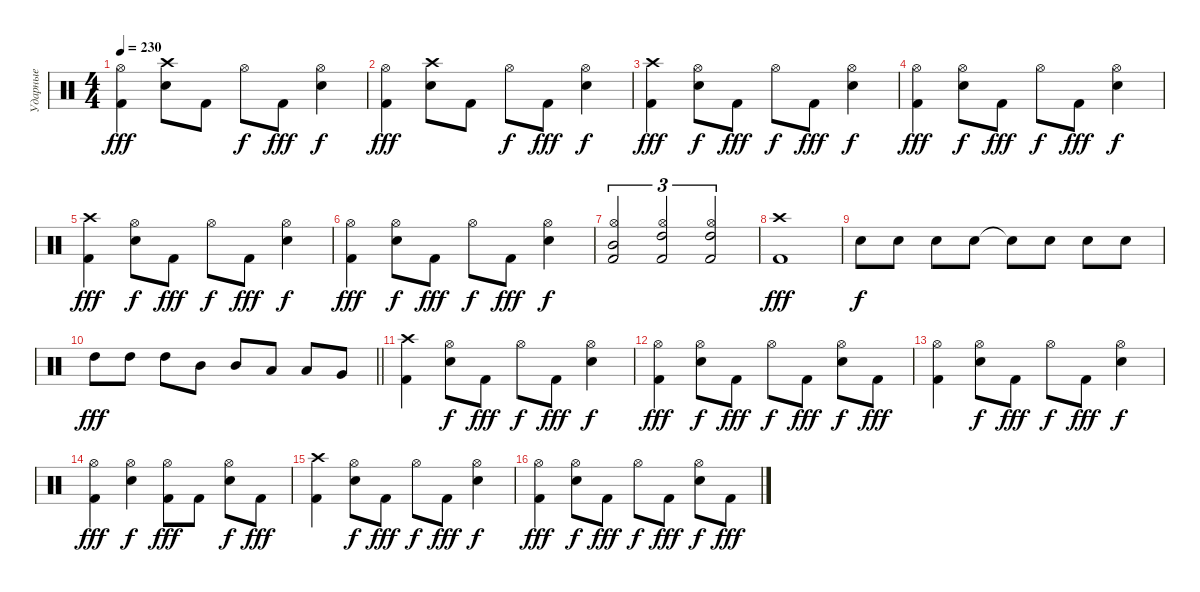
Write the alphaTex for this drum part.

\track ("Ударные" "Ударные") {instrument percussion}
\staff
\articulation defaults
\ts (4 4)
\tempo 230
\clef neutral
\ks c
("Kick (hit) 2" "Hi-Hat (open)").4{dy fff} ("Snare (hit) 2" "Crash high (hit)").8 "Kick (hit) 2".8 "Hi-Hat (open)".8{dy f} "Kick (hit) 2".8{dy fff} ("Snare (hit) 2" "Hi-Hat (open)").4{dy f} |
("Kick (hit) 2" "Hi-Hat (open)").4{dy fff} ("Snare (hit) 2" "Crash high (hit)").8 "Kick (hit) 2".8 "Hi-Hat (open)".8{dy f} "Kick (hit) 2".8{dy fff} ("Snare (hit) 2" "Hi-Hat (open)").4{dy f} |
("Kick (hit) 2" "Crash high (hit)").4{dy fff} ("Snare (hit) 2" "Hi-Hat (open)").8{dy f} "Kick (hit) 2".8{dy fff} "Hi-Hat (open)".8{dy f} "Kick (hit) 2".8{dy fff} ("Snare (hit) 2" "Hi-Hat (open)").4{dy f} |
("Kick (hit) 2" "Hi-Hat (open)").4{dy fff} ("Snare (hit) 2" "Hi-Hat (open)").8{dy f} "Kick (hit) 2".8{dy fff} "Hi-Hat (open)".8{dy f} "Kick (hit) 2".8{dy fff} ("Snare (hit) 2" "Hi-Hat (open)").4{dy f} |
("Kick (hit) 2" "Crash high (hit)").4{dy fff} ("Snare (hit) 2" "Hi-Hat (open)").8{dy f} "Kick (hit) 2".8{dy fff} "Hi-Hat (open)".8{dy f} "Kick (hit) 2".8{dy fff} ("Snare (hit) 2" "Hi-Hat (open)").4{dy f} |
("Kick (hit) 2" "Hi-Hat (open)").4{dy fff} ("Snare (hit) 2" "Hi-Hat (open)").8{dy f} "Kick (hit) 2".8{dy fff} "Hi-Hat (open)".8{dy f} "Kick (hit) 2".8{dy fff} ("Snare (hit) 2" "Hi-Hat (open)").4{dy f} |
("Kick (hit) 2" "Mid Tom (hit)" "Hi-Hat (open)").2{tu (3 2)} ("Kick (hit) 2" "High Tom (hit)" "Hi-Hat (open)").2{tu (3 2)} ("Kick (hit) 2" "High Tom (hit)" "Hi-Hat (open)").2{tu (3 2)} |
("Kick (hit) 2" "Crash high (hit)").1{dy fff} |
"Snare (hit) 2".8{dy f} "Snare (hit) 2".8 "Snare (hit) 2".8 "Snare (hit) 2".8 "Snare (hit) 2"{t}.8 "Snare (hit) 2".8 "Snare (hit) 2".8 "Snare (hit) 2".8 |
\barLineRight lightlight "High Tom (hit)".8{dy fff} "High Tom (hit)".8 "High Tom (hit)".8 "Mid Tom (hit)".8 "Mid Tom (hit)".8 "Low Tom (hit)".8 "Low Tom (hit)".8 "Very Low Tom (hit)".8
|
("Kick (hit) 2" "Crash high (hit)").4 ("Snare (hit) 2" "Hi-Hat (open)").8{dy f} "Kick (hit) 2".8{dy fff} "Hi-Hat (open)".8{dy f} "Kick (hit) 2".8{dy fff} ("Snare (hit) 2" "Hi-Hat (open)").4{dy f} |
("Kick (hit) 2" "Hi-Hat (open)").4{dy fff} ("Snare (hit) 2" "Hi-Hat (open)").8{dy f} "Kick (hit) 2".8{dy fff} "Hi-Hat (open)".8{dy f} "Kick (hit) 2".8{dy fff} ("Snare (hit) 2" "Hi-Hat (open)").8{dy f} "Kick (hit) 2".8{dy fff} |
("Kick (hit) 2" "Hi-Hat (open)").4 ("Snare (hit) 2" "Hi-Hat (open)").8{dy f} "Kick (hit) 2".8{dy fff} "Hi-Hat (open)".8{dy f} "Kick (hit) 2".8{dy fff} ("Snare (hit) 2" "Hi-Hat (open)").4{dy f} |
("Kick (hit) 2" "Hi-Hat (open)").4{dy fff} ("Snare (hit) 2" "Hi-Hat (open)").4{dy f} ("Kick (hit) 2" "Hi-Hat (open)").8{dy fff} "Kick (hit) 2".8 ("Snare (hit) 2" "Hi-Hat (open)").8{dy f} "Kick (hit) 2".8{dy fff} |
("Kick (hit) 2" "Crash high (hit)").4 ("Snare (hit) 2" "Hi-Hat (open)").8{dy f} "Kick (hit) 2".8{dy fff} "Hi-Hat (open)".8{dy f} "Kick (hit) 2".8{dy fff} ("Snare (hit) 2" "Hi-Hat (open)").4{dy f} |
("Kick (hit) 2" "Hi-Hat (open)").4{dy fff} ("Snare (hit) 2" "Hi-Hat (open)").8{dy f} "Kick (hit) 2".8{dy fff} "Hi-Hat (open)".8{dy f} "Kick (hit) 2".8{dy fff} ("Snare (hit) 2" "Hi-Hat (open)").8{dy f} "Kick (hit) 2".8{dy fff}
